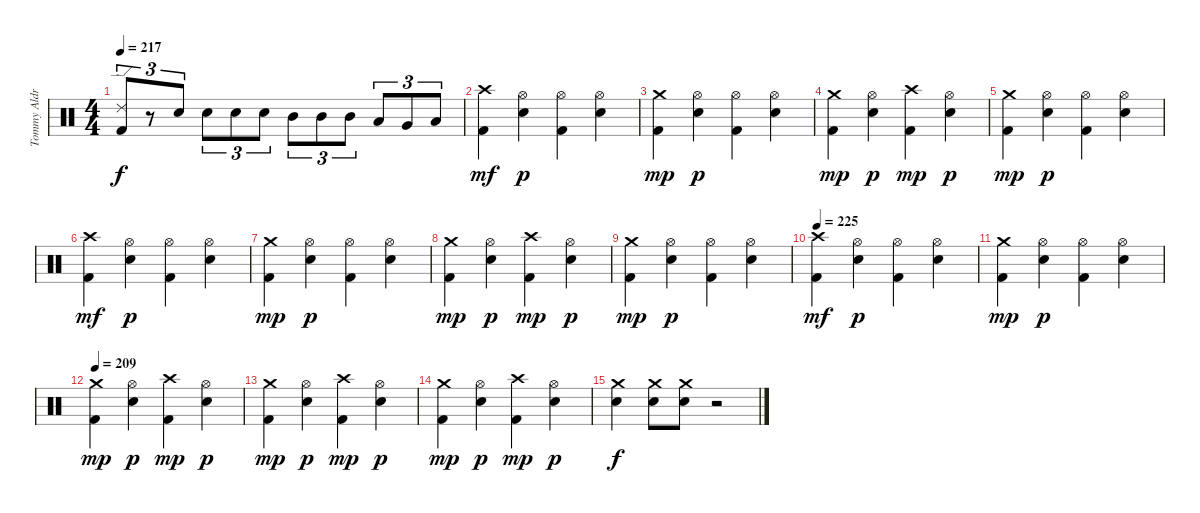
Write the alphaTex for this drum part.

\track ("Tommy Aldridge" "Tommy Aldr") {instrument percussion}
\staff {score}
\articulation defaults
\ts (4 4)
\tempo 217
\clef neutral
\ks c
("Kick (hit) 2" "Ride (edge) 2").8{tu (3 2) dy f} r.8{tu (3 2)} "Snare (hit) 2".8{tu (3 2)} "Snare (hit) 2".8{tu (3 2)} "Snare (hit) 2".8{tu (3 2)} "Snare (hit) 2".8{tu (3 2)} "Mid Tom (hit)".8{tu (3 2)} "Mid Tom (hit)".8{tu (3 2)} "Mid Tom (hit)".8{tu (3 2)} "Low Tom (hit)".8{tu (3 2)} "Very Low Tom (hit)".8{tu (3 2)} "Low Floor Tom (hit)".8{tu (3 2)} |
("Kick (hit) 2" "Crash high (hit)").4{dy mf} ("Hi-Hat (open)" "Snare (hit) 2").4{dy p} ("Kick (hit) 2" "Hi-Hat (open)").4 ("Hi-Hat (open)" "Snare (hit) 2").4 |
("Kick (hit) 2" "Crash medium (hit)").4{dy mp} ("Hi-Hat (open)" "Snare (hit) 2").4{dy p} ("Kick (hit) 2" "Hi-Hat (open)").4 ("Hi-Hat (open)" "Snare (hit) 2").4 |
("Kick (hit) 2" "Crash medium (hit)").4{dy mp} ("Hi-Hat (open)" "Snare (hit) 2").4{dy p} ("Kick (hit) 2" "Crash high (hit)").4{dy mp} ("Hi-Hat (open)" "Snare (hit) 2").4{dy p} |
("Kick (hit) 2" "Crash medium (hit)").4{dy mp} ("Hi-Hat (open)" "Snare (hit) 2").4{dy p} ("Kick (hit) 2" "Hi-Hat (open)").4 ("Hi-Hat (open)" "Snare (hit) 2").4 |
("Kick (hit) 2" "Crash high (hit)").4{dy mf} ("Hi-Hat (open)" "Snare (hit) 2").4{dy p} ("Kick (hit) 2" "Hi-Hat (open)").4 ("Hi-Hat (open)" "Snare (hit) 2").4 |
("Kick (hit) 2" "Crash medium (hit)").4{dy mp} ("Hi-Hat (open)" "Snare (hit) 2").4{dy p} ("Kick (hit) 2" "Hi-Hat (open)").4 ("Hi-Hat (open)" "Snare (hit) 2").4 |
("Kick (hit) 2" "Crash medium (hit)").4{dy mp} ("Hi-Hat (open)" "Snare (hit) 2").4{dy p} ("Kick (hit) 2" "Crash high (hit)").4{dy mp} ("Hi-Hat (open)" "Snare (hit) 2").4{dy p} |
("Kick (hit) 2" "Crash medium (hit)").4{dy mp} ("Hi-Hat (open)" "Snare (hit) 2").4{dy p} ("Kick (hit) 2" "Hi-Hat (open)").4 ("Hi-Hat (open)" "Snare (hit) 2").4 |
\tempo 225
("Kick (hit) 2" "Crash high (hit)").4{dy mf} ("Hi-Hat (open)" "Snare (hit) 2").4{dy p} ("Kick (hit) 2" "Hi-Hat (open)").4 ("Hi-Hat (open)" "Snare (hit) 2").4 |
("Kick (hit) 2" "Crash medium (hit)").4{dy mp} ("Hi-Hat (open)" "Snare (hit) 2").4{dy p} ("Kick (hit) 2" "Hi-Hat (open)").4 ("Hi-Hat (open)" "Snare (hit) 2").4 |
\tempo 209
("Kick (hit) 2" "Crash medium (hit)").4{dy mp} ("Hi-Hat (open)" "Snare (hit) 2").4{dy p} ("Kick (hit) 2" "Crash high (hit)").4{dy mp} ("Hi-Hat (open)" "Snare (hit) 2").4{dy p} |
("Kick (hit) 2" "Crash medium (hit)").4{dy mp} ("Hi-Hat (open)" "Snare (hit) 2").4{dy p} ("Kick (hit) 2" "Crash high (hit)").4{dy mp} ("Hi-Hat (open)" "Snare (hit) 2").4{dy p} |
("Kick (hit) 2" "Crash medium (hit)").4{dy mp} ("Hi-Hat (open)" "Snare (hit) 2").4{dy p} ("Kick (hit) 2" "Crash high (hit)").4{dy mp} ("Hi-Hat (open)" "Snare (hit) 2").4{dy p} |
("Crash medium (hit)" "Snare (hit) 2").4{dy f} ("Crash medium (hit)" "Snare (hit) 2").8 ("Crash medium (hit)" "Snare (hit) 2").8 r.2
